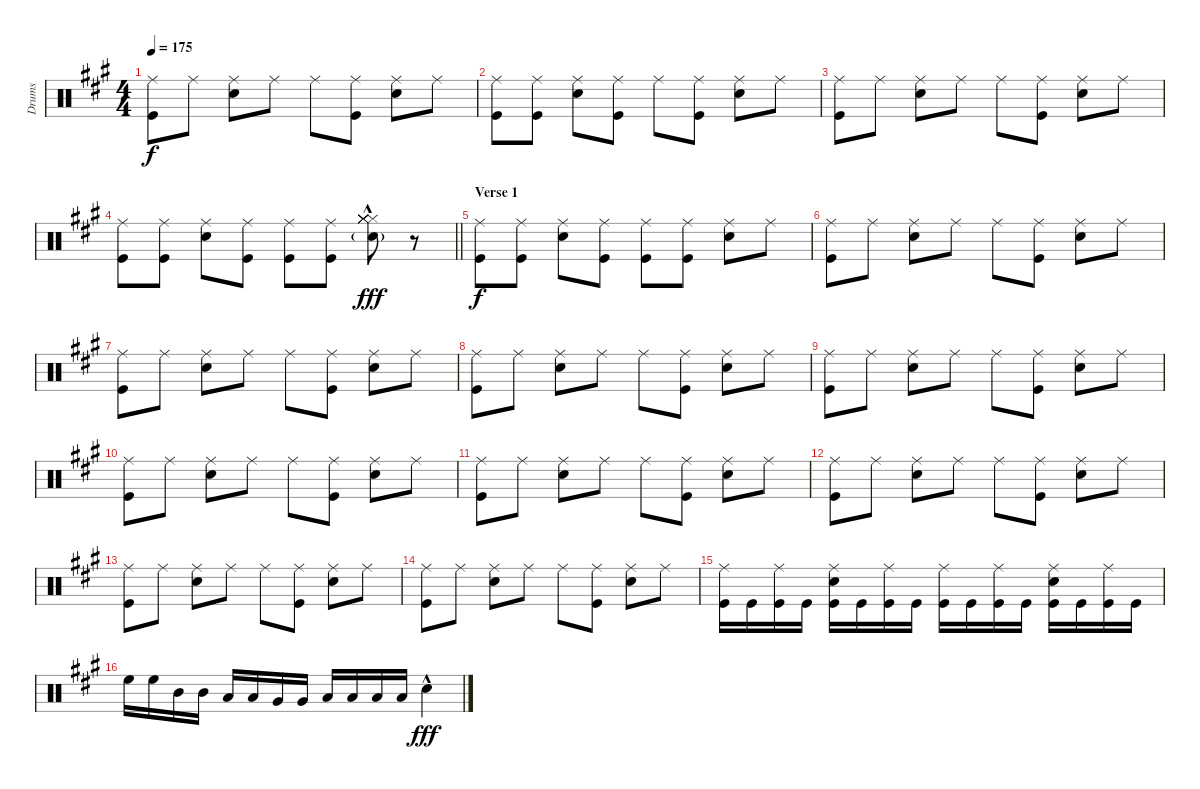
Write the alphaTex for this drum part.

\track ("Drums" "Drums") {instrument percussion}
\staff {score}
\articulation defaults
\ts (4 4)
\tempo 175
\clef neutral
\ks f#minor
("Ride (middle)" "Kick (hit)").8{dy f} "Ride (middle)".8 ("Ride (middle)" "Snare (hit) 2").8 "Ride (middle)".8 "Ride (middle)".8 ("Ride (middle)" "Kick (hit)").8 ("Ride (middle)" "Snare (hit) 2").8 "Ride (middle)".8 |
("Ride (middle)" "Kick (hit)").8 ("Ride (middle)" "Kick (hit)").8 ("Ride (middle)" "Snare (hit) 2").8 ("Ride (middle)" "Kick (hit)").8 "Ride (middle)".8 ("Ride (middle)" "Kick (hit)").8 ("Ride (middle)" "Snare (hit) 2").8 "Ride (middle)".8 |
("Ride (middle)" "Kick (hit)").8 "Ride (middle)".8 ("Ride (middle)" "Snare (hit) 2").8 "Ride (middle)".8 "Ride (middle)".8 ("Ride (middle)" "Kick (hit)").8 ("Ride (middle)" "Snare (hit) 2").8 "Ride (middle)".8 |
\barLineRight lightlight
("Ride (middle)" "Kick (hit)").8 ("Ride (middle)" "Kick (hit)").8 ("Ride (middle)" "Snare (hit) 2").8 ("Ride (middle)" "Kick (hit)").8 ("Ride (middle)" "Kick (hit)").8 ("Ride (middle)" "Kick (hit)").8 ("Hi-Hat (closed)"{hac} "Hi-Hat (closed)"{hac} "Hi-Hat (closed)"{hac} "Hi-Hat (closed)"{hac} "Snare (hit) 2"{g} "Hi-Hat (closed)"{hac}).8{dy fff} r.8 |
\section ("" "Verse 1")
("Ride (middle)" "Kick (hit)").8{dy f} ("Ride (middle)" "Kick (hit)").8 ("Ride (middle)" "Snare (hit) 2").8 ("Ride (middle)" "Kick (hit)").8 ("Ride (middle)" "Kick (hit)").8 ("Ride (middle)" "Kick (hit)").8 ("Ride (middle)" "Snare (hit) 2").8 "Ride (middle)".8 |
("Ride (middle)" "Kick (hit)").8 "Ride (middle)".8 ("Ride (middle)" "Snare (hit) 2").8 "Ride (middle)".8 "Ride (middle)".8 ("Ride (middle)" "Kick (hit)").8 ("Ride (middle)" "Snare (hit) 2").8 "Ride (middle)".8 |
("Ride (middle)" "Kick (hit)").8 "Ride (middle)".8 ("Ride (middle)" "Snare (hit) 2").8 "Ride (middle)".8 "Ride (middle)".8 ("Ride (middle)" "Kick (hit)").8 ("Ride (middle)" "Snare (hit) 2").8 "Ride (middle)".8 |
("Ride (middle)" "Kick (hit)").8 "Ride (middle)".8 ("Ride (middle)" "Snare (hit) 2").8 "Ride (middle)".8 "Ride (middle)".8 ("Ride (middle)" "Kick (hit)").8 ("Ride (middle)" "Snare (hit) 2").8 "Ride (middle)".8 |
("Ride (middle)" "Kick (hit)").8 "Ride (middle)".8 ("Ride (middle)" "Snare (hit) 2").8 "Ride (middle)".8 "Ride (middle)".8 ("Ride (middle)" "Kick (hit)").8 ("Ride (middle)" "Snare (hit) 2").8 "Ride (middle)".8 |
("Ride (middle)" "Kick (hit)").8 "Ride (middle)".8 ("Ride (middle)" "Snare (hit) 2").8 "Ride (middle)".8 "Ride (middle)".8 ("Ride (middle)" "Kick (hit)").8 ("Ride (middle)" "Snare (hit) 2").8 "Ride (middle)".8 |
("Ride (middle)" "Kick (hit)").8 "Ride (middle)".8 ("Ride (middle)" "Snare (hit) 2").8 "Ride (middle)".8 "Ride (middle)".8 ("Ride (middle)" "Kick (hit)").8 ("Ride (middle)" "Snare (hit) 2").8 "Ride (middle)".8 |
("Ride (middle)" "Kick (hit)").8 "Ride (middle)".8 ("Ride (middle)" "Snare (hit) 2").8 "Ride (middle)".8 "Ride (middle)".8 ("Ride (middle)" "Kick (hit)").8 ("Ride (middle)" "Snare (hit) 2").8 "Ride (middle)".8 |
("Ride (middle)" "Kick (hit)").8 "Ride (middle)".8 ("Ride (middle)" "Snare (hit) 2").8 "Ride (middle)".8 "Ride (middle)".8 ("Ride (middle)" "Kick (hit)").8 ("Ride (middle)" "Snare (hit) 2").8 "Ride (middle)".8 |
("Ride (middle)" "Kick (hit)").8 "Ride (middle)".8 ("Ride (middle)" "Snare (hit) 2").8 "Ride (middle)".8 "Ride (middle)".8 ("Ride (middle)" "Kick (hit)").8 ("Ride (middle)" "Snare (hit) 2").8 "Ride (middle)".8 |
("Ride (middle)" "Kick (hit)").16 "Kick (hit)".16 ("Ride (middle)" "Kick (hit)").16 "Kick (hit)".16 ("Ride (middle)" "Snare (hit) 2" "Kick (hit)").16 "Kick (hit)".16 ("Ride (middle)" "Kick (hit)").16 "Kick (hit)".16 ("Ride (middle)" "Kick (hit)").16 "Kick (hit)".16 ("Ride (middle)" "Kick (hit)").16 "Kick (hit)".16 ("Ride (middle)" "Snare (hit) 2" "Kick (hit)").16 "Kick (hit)".16 ("Ride (middle)" "Kick (hit)").16 "Kick (hit)".16 |
"High Floor Tom (hit)".16 "High Floor Tom (hit)".16 "Mid Tom (hit)".16 "Mid Tom (hit)".16 "Low Tom (hit)".16 "Low Tom (hit)".16 "Very Low Tom (hit)".16 "Very Low Tom (hit)".16 "Low Floor Tom (hit)".16 "Low Floor Tom (hit)".16 "Low Floor Tom (hit)".16 "Low Floor Tom (hit)".16 "Snare (hit) 2"{hac}.4{dy fff}
